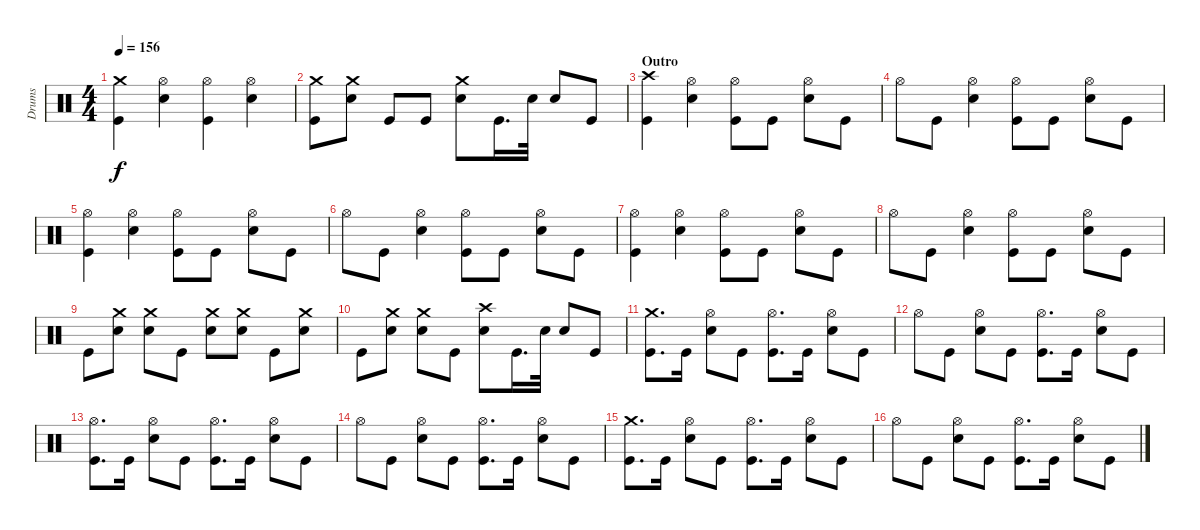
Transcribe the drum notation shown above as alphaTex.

\track ("Drums" "Drums") {instrument percussion}
\staff {score}
\articulation defaults
\ts (4 4)
\tempo 156
\clef neutral
\ks c
("Kick (hit)" "Crash medium (hit)").4{dy f} ("Electric Snare (hit)" "Hi-Hat (open)").4 ("Kick (hit)" "Hi-Hat (open)").4 ("Electric Snare (hit)" "Hi-Hat (open)").4 |
("Kick (hit)" "Crash medium (hit)").8 ("Electric Snare (hit)" "Crash medium (hit)").8 "Kick (hit)".8 "Kick (hit)".8 ("Electric Snare (hit)" "Crash medium (hit)").8 "Kick (hit)".16{d} "Electric Snare (hit)".32 "Electric Snare (hit)".8 "Kick (hit)".8 |
\section ("" "Outro")
("Kick (hit)" "Crash high (hit)").4 ("Electric Snare (hit)" "Hi-Hat (open)").4 ("Kick (hit)" "Hi-Hat (open)").8 "Kick (hit)".8 ("Electric Snare (hit)" "Hi-Hat (open)").8 "Kick (hit)".8 |
"Hi-Hat (open)".8 "Kick (hit)".8 ("Electric Snare (hit)" "Hi-Hat (open)").4 ("Kick (hit)" "Hi-Hat (open)").8 "Kick (hit)".8 ("Electric Snare (hit)" "Hi-Hat (open)").8 "Kick (hit)".8 |
("Kick (hit)" "Hi-Hat (open)").4 ("Electric Snare (hit)" "Hi-Hat (open)").4 ("Kick (hit)" "Hi-Hat (open)").8 "Kick (hit)".8 ("Electric Snare (hit)" "Hi-Hat (open)").8 "Kick (hit)".8 |
"Hi-Hat (open)".8 "Kick (hit)".8 ("Electric Snare (hit)" "Hi-Hat (open)").4 ("Kick (hit)" "Hi-Hat (open)").8 "Kick (hit)".8 ("Electric Snare (hit)" "Hi-Hat (open)").8 "Kick (hit)".8 |
("Kick (hit)" "Hi-Hat (open)").4 ("Electric Snare (hit)" "Hi-Hat (open)").4 ("Kick (hit)" "Hi-Hat (open)").8 "Kick (hit)".8 ("Electric Snare (hit)" "Hi-Hat (open)").8 "Kick (hit)".8 |
"Hi-Hat (open)".8 "Kick (hit)".8 ("Electric Snare (hit)" "Hi-Hat (open)").4 ("Kick (hit)" "Hi-Hat (open)").8 "Kick (hit)".8 ("Electric Snare (hit)" "Hi-Hat (open)").8 "Kick (hit)".8 |
"Kick (hit)".8 ("Crash medium (hit)" "Electric Snare (hit)").8 ("Crash medium (hit)" "Electric Snare (hit)").8 "Kick (hit)".8 ("Crash medium (hit)" "Electric Snare (hit)").8 ("Crash medium (hit)" "Electric Snare (hit)").8 "Kick (hit)".8 ("Crash medium (hit)" "Electric Snare (hit)").8 |
"Kick (hit)".8 ("Crash medium (hit)" "Electric Snare (hit)").8 ("Crash medium (hit)" "Electric Snare (hit)").8 "Kick (hit)".8 ("Crash high (hit)" "Electric Snare (hit)").8 "Kick (hit)".16{d} "Electric Snare (hit)".32 "Electric Snare (hit)".8 "Kick (hit)".8 |
("Kick (hit)" "Crash medium (hit)").8{d} "Kick (hit)".16 ("Electric Snare (hit)" "Hi-Hat (open)").8 "Kick (hit)".8 ("Kick (hit)" "Hi-Hat (open)").8{d} "Kick (hit)".16 ("Electric Snare (hit)" "Hi-Hat (open)").8 "Kick (hit)".8 |
"Hi-Hat (open)".8 "Kick (hit)".8 ("Electric Snare (hit)" "Hi-Hat (open)").8 "Kick (hit)".8 ("Kick (hit)" "Hi-Hat (open)").8{d} "Kick (hit)".16 ("Electric Snare (hit)" "Hi-Hat (open)").8 "Kick (hit)".8 |
("Hi-Hat (open)" "Kick (hit)").8{d} "Kick (hit)".16 ("Hi-Hat (open)" "Electric Snare (hit)").8 "Kick (hit)".8 ("Kick (hit)" "Hi-Hat (open)").8{d} "Kick (hit)".16 ("Electric Snare (hit)" "Hi-Hat (open)").8 "Kick (hit)".8 |
"Hi-Hat (open)".8 "Kick (hit)".8 ("Hi-Hat (open)" "Electric Snare (hit)").8 "Kick (hit)".8 ("Hi-Hat (open)" "Kick (hit)").8{d} "Kick (hit)".16 ("Hi-Hat (open)" "Electric Snare (hit)").8 "Kick (hit)".8 |
("Kick (hit)" "Crash medium (hit)").8{d} "Kick (hit)".16 ("Electric Snare (hit)" "Hi-Hat (open)").8 "Kick (hit)".8 ("Kick (hit)" "Hi-Hat (open)").8{d} "Kick (hit)".16 ("Electric Snare (hit)" "Hi-Hat (open)").8 "Kick (hit)".8 |
"Hi-Hat (open)".8 "Kick (hit)".8 ("Electric Snare (hit)" "Hi-Hat (open)").8 "Kick (hit)".8 ("Kick (hit)" "Hi-Hat (open)").8{d} "Kick (hit)".16 ("Electric Snare (hit)" "Hi-Hat (open)").8 "Kick (hit)".8
